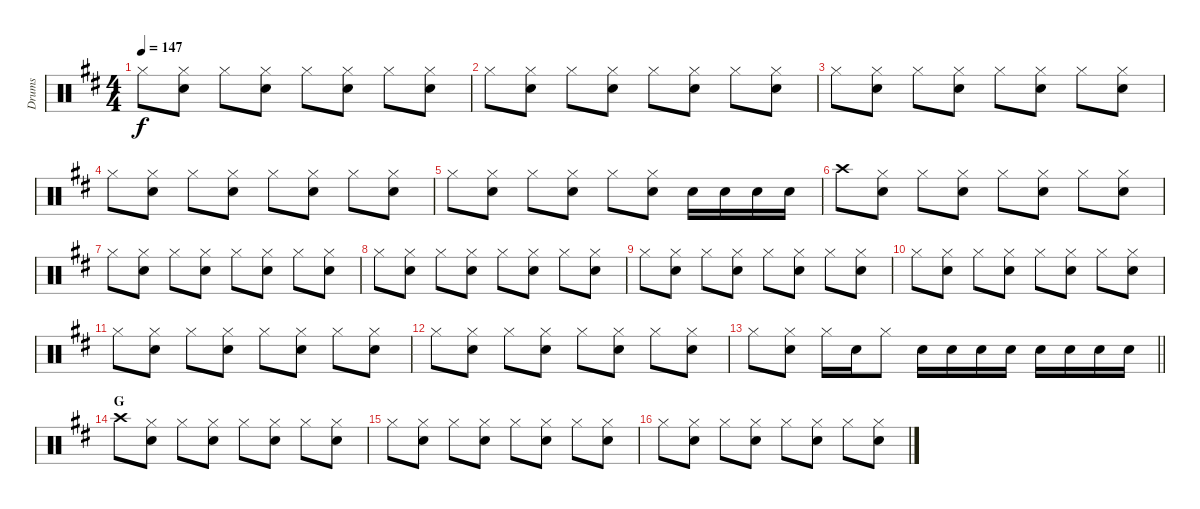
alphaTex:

\track ("Drums" "Drums") {instrument percussion}
\staff {score}
\articulation defaults
\ts (4 4)
\tempo 147
\clef neutral
\ks d "Hi-Hat (closed)".8{dy f}
("Hi-Hat (closed)" "Snare (hit) 2").8 "Hi-Hat (closed)".8 ("Hi-Hat (closed)" "Snare (hit) 2").8 "Hi-Hat (closed)".8 ("Hi-Hat (closed)" "Snare (hit) 2").8 "Hi-Hat (closed)".8 ("Hi-Hat (closed)" "Snare (hit) 2").8 |
"Hi-Hat (closed)".8 ("Hi-Hat (closed)" "Snare (hit) 2").8 "Hi-Hat (closed)".8 ("Hi-Hat (closed)" "Snare (hit) 2").8 "Hi-Hat (closed)".8 ("Hi-Hat (closed)" "Snare (hit) 2").8 "Hi-Hat (closed)".8 ("Hi-Hat (closed)" "Snare (hit) 2").8 |
"Hi-Hat (closed)".8 ("Hi-Hat (closed)" "Snare (hit) 2").8 "Hi-Hat (closed)".8 ("Hi-Hat (closed)" "Snare (hit) 2").8 "Hi-Hat (closed)".8 ("Hi-Hat (closed)" "Snare (hit) 2").8 "Hi-Hat (closed)".8 ("Hi-Hat (closed)" "Snare (hit) 2").8 |
"Hi-Hat (closed)".8 ("Hi-Hat (closed)" "Snare (hit) 2").8 "Hi-Hat (closed)".8 ("Hi-Hat (closed)" "Snare (hit) 2").8 "Hi-Hat (closed)".8 ("Hi-Hat (closed)" "Snare (hit) 2").8 "Hi-Hat (closed)".8 ("Hi-Hat (closed)" "Snare (hit) 2").8 |
"Hi-Hat (closed)".8 ("Hi-Hat (closed)" "Snare (hit) 2").8 "Hi-Hat (closed)".8 ("Hi-Hat (closed)" "Snare (hit) 2").8 "Hi-Hat (closed)".8 ("Hi-Hat (closed)" "Snare (hit) 2").8 "Snare (hit) 2".16 "Snare (hit) 2".16 "Snare (hit) 2".16 "Snare (hit) 2".16 |
"Crash high (hit)".8 ("Hi-Hat (closed)" "Snare (hit) 2").8 "Hi-Hat (closed)".8 ("Hi-Hat (closed)" "Snare (hit) 2").8 "Hi-Hat (closed)".8 ("Hi-Hat (closed)" "Snare (hit) 2").8 "Hi-Hat (closed)".8 ("Hi-Hat (closed)" "Snare (hit) 2").8 |
"Hi-Hat (closed)".8 ("Hi-Hat (closed)" "Snare (hit) 2").8 "Hi-Hat (closed)".8 ("Hi-Hat (closed)" "Snare (hit) 2").8 "Hi-Hat (closed)".8 ("Hi-Hat (closed)" "Snare (hit) 2").8 "Hi-Hat (closed)".8 ("Hi-Hat (closed)" "Snare (hit) 2").8 |
"Hi-Hat (closed)".8 ("Hi-Hat (closed)" "Snare (hit) 2").8 "Hi-Hat (closed)".8 ("Hi-Hat (closed)" "Snare (hit) 2").8 "Hi-Hat (closed)".8 ("Hi-Hat (closed)" "Snare (hit) 2").8 "Hi-Hat (closed)".8 ("Hi-Hat (closed)" "Snare (hit) 2").8 |
"Hi-Hat (closed)".8 ("Hi-Hat (closed)" "Snare (hit) 2").8 "Hi-Hat (closed)".8 ("Hi-Hat (closed)" "Snare (hit) 2").8 "Hi-Hat (closed)".8 ("Hi-Hat (closed)" "Snare (hit) 2").8 "Hi-Hat (closed)".8 ("Hi-Hat (closed)" "Snare (hit) 2").8 |
"Hi-Hat (closed)".8 ("Hi-Hat (closed)" "Snare (hit) 2").8 "Hi-Hat (closed)".8 ("Hi-Hat (closed)" "Snare (hit) 2").8 "Hi-Hat (closed)".8 ("Hi-Hat (closed)" "Snare (hit) 2").8 "Hi-Hat (closed)".8 ("Hi-Hat (closed)" "Snare (hit) 2").8 |
"Hi-Hat (closed)".8 ("Hi-Hat (closed)" "Snare (hit) 2").8 "Hi-Hat (closed)".8 ("Hi-Hat (closed)" "Snare (hit) 2").8 "Hi-Hat (closed)".8 ("Hi-Hat (closed)" "Snare (hit) 2").8 "Hi-Hat (closed)".8 ("Hi-Hat (closed)" "Snare (hit) 2").8 |
"Hi-Hat (closed)".8 ("Hi-Hat (closed)" "Snare (hit) 2").8 "Hi-Hat (closed)".8 ("Hi-Hat (closed)" "Snare (hit) 2").8 "Hi-Hat (closed)".8 ("Hi-Hat (closed)" "Snare (hit) 2").8 "Hi-Hat (closed)".8 ("Hi-Hat (closed)" "Snare (hit) 2").8 |
\barLineRight lightlight "Hi-Hat (closed)".8
("Hi-Hat (closed)" "Snare (hit) 2").8 "Hi-Hat (closed)".16 "Snare (hit) 2".16 "Hi-Hat (closed)".8 "Snare (hit) 2".16 "Snare (hit) 2".16 "Snare (hit) 2".16 "Snare (hit) 2".16 "Snare (hit) 2".16 "Snare (hit) 2".16 "Snare (hit) 2".16 "Snare (hit) 2".16 |
\section ("" "G")
"Crash high (hit)".8 ("Hi-Hat (closed)" "Snare (hit) 2").8 "Hi-Hat (closed)".8 ("Hi-Hat (closed)" "Snare (hit) 2").8 "Hi-Hat (closed)".8 ("Hi-Hat (closed)" "Snare (hit) 2").8 "Hi-Hat (closed)".8 ("Hi-Hat (closed)" "Snare (hit) 2").8 |
"Hi-Hat (closed)".8 ("Hi-Hat (closed)" "Snare (hit) 2").8 "Hi-Hat (closed)".8 ("Hi-Hat (closed)" "Snare (hit) 2").8 "Hi-Hat (closed)".8 ("Hi-Hat (closed)" "Snare (hit) 2").8 "Hi-Hat (closed)".8 ("Hi-Hat (closed)" "Snare (hit) 2").8 |
"Hi-Hat (closed)".8 ("Hi-Hat (closed)" "Snare (hit) 2").8 "Hi-Hat (closed)".8 ("Hi-Hat (closed)" "Snare (hit) 2").8 "Hi-Hat (closed)".8 ("Hi-Hat (closed)" "Snare (hit) 2").8 "Hi-Hat (closed)".8 ("Hi-Hat (closed)" "Snare (hit) 2").8
